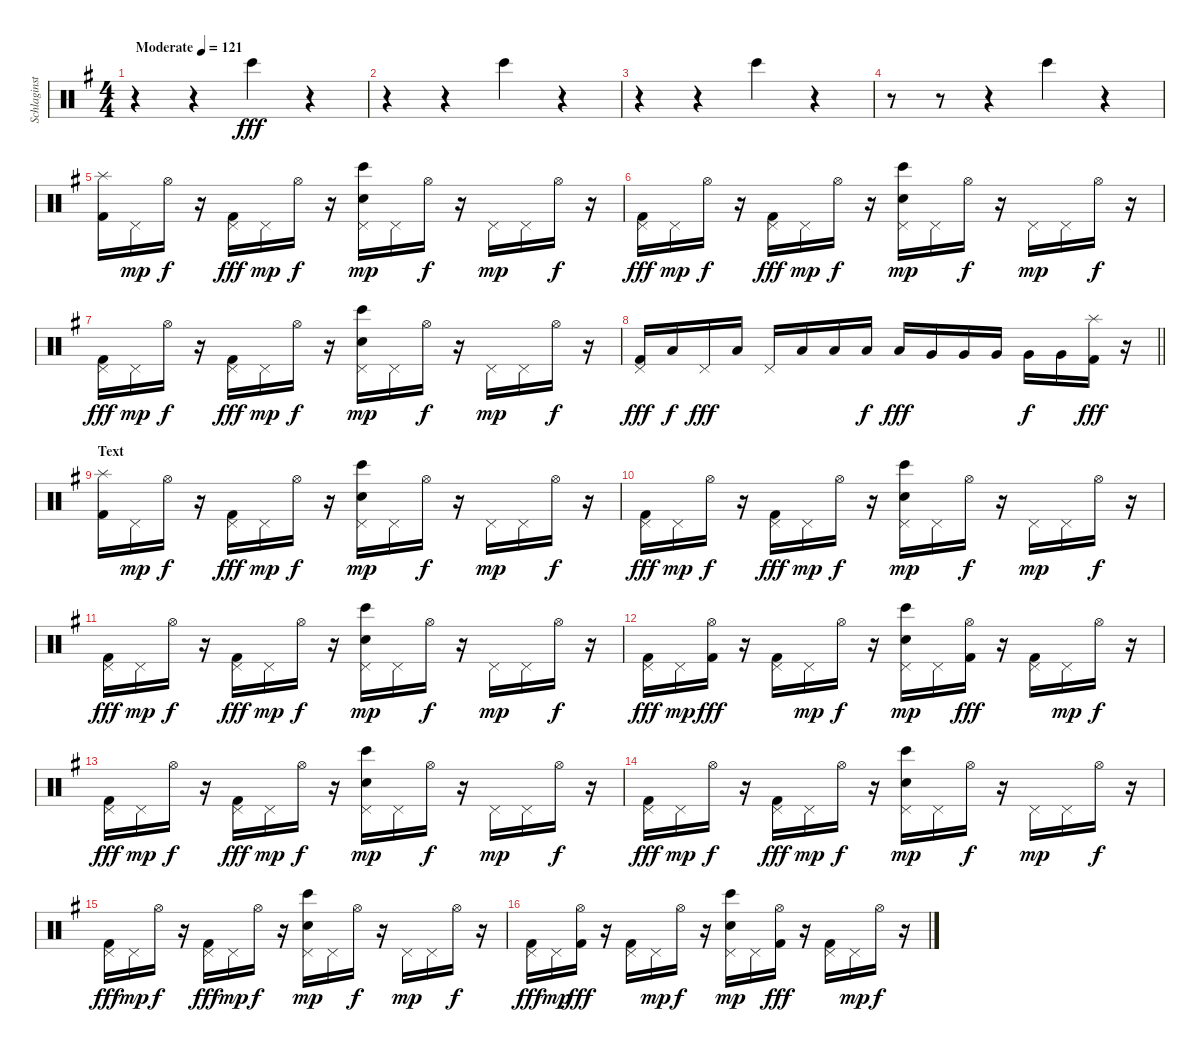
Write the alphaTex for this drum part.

\track ("Schlaginstrumente - Auswahl" "Schlaginst") {instrument percussion}
\staff {score}
\articulation defaults
\ts (4 4)
\tempo (121 "Moderate")
\clef neutral
\ks g
r.4{dy fff} r.4 "Bongo High (hit)".4 r.4 |
r.4 r.4 "Bongo High (hit)".4 r.4 |
r.4 r.4 "Bongo High (hit)".4 r.4 |
r.8 r.8 r.4 "Bongo High (hit)".4 r.4 |
("Splash (hit)" "Kick (hit) 2").16 "Pedal Hi-Hat (hit)".16{dy mp} "Hi-Hat (open)".16{dy f} r.16 ("Pedal Hi-Hat (hit)" "Kick (hit) 2").16{dy fff} "Pedal Hi-Hat (hit)".16{dy mp} "Hi-Hat (open)".16{dy f} r.16 ("Bongo High (hit)" "Pedal Hi-Hat (hit)" "Electric Snare (hit)").16{dy mp} "Pedal Hi-Hat (hit)".16 "Hi-Hat (open)".16{dy f} r.16 "Pedal Hi-Hat (hit)".16{dy mp} "Pedal Hi-Hat (hit)".16 "Hi-Hat (open)".16{dy f} r.16 |
("Pedal Hi-Hat (hit)" "Kick (hit) 2").16{dy fff} "Pedal Hi-Hat (hit)".16{dy mp} "Hi-Hat (open)".16{dy f} r.16 ("Pedal Hi-Hat (hit)" "Kick (hit) 2").16{dy fff} "Pedal Hi-Hat (hit)".16{dy mp} "Hi-Hat (open)".16{dy f} r.16 ("Bongo High (hit)" "Pedal Hi-Hat (hit)" "Electric Snare (hit)").16{dy mp} "Pedal Hi-Hat (hit)".16 "Hi-Hat (open)".16{dy f} r.16 "Pedal Hi-Hat (hit)".16{dy mp} "Pedal Hi-Hat (hit)".16 "Hi-Hat (open)".16{dy f} r.16 |
("Pedal Hi-Hat (hit)" "Kick (hit) 2").16{dy fff} "Pedal Hi-Hat (hit)".16{dy mp} "Hi-Hat (open)".16{dy f} r.16 ("Pedal Hi-Hat (hit)" "Kick (hit) 2").16{dy fff} "Pedal Hi-Hat (hit)".16{dy mp} "Hi-Hat (open)".16{dy f} r.16 ("Bongo High (hit)" "Pedal Hi-Hat (hit)" "Electric Snare (hit)").16{dy mp} "Pedal Hi-Hat (hit)".16 "Hi-Hat (open)".16{dy f} r.16 "Pedal Hi-Hat (hit)".16{dy mp} "Pedal Hi-Hat (hit)".16 "Hi-Hat (open)".16{dy f} r.16 |
\barLineRight lightlight
("Pedal Hi-Hat (hit)" "Kick (hit) 2").16{dy fff} "Low Floor Tom (hit)".16{dy f} "Pedal Hi-Hat (hit)".16{dy fff} "Low Floor Tom (hit)".16 "Pedal Hi-Hat (hit)".16 "Low Tom (hit)".16 "Low Tom (hit)".16 "Low Tom (hit)".16{dy f} "Low Tom (hit)".16{dy fff} "Very Low Tom (hit)".16 "Very Low Tom (hit)".16 "Very Low Tom (hit)".16 "Very Low Tom (hit)".16{dy f} "Very Low Tom (hit)".16 ("Splash (hit)" "Kick (hit) 2").16{dy fff} r.16 |
\section ("" "Text")
("Splash (hit)" "Kick (hit) 2").16 "Pedal Hi-Hat (hit)".16{dy mp} "Hi-Hat (open)".16{dy f} r.16 ("Pedal Hi-Hat (hit)" "Kick (hit) 2").16{dy fff} "Pedal Hi-Hat (hit)".16{dy mp} "Hi-Hat (open)".16{dy f} r.16 ("Bongo High (hit)" "Pedal Hi-Hat (hit)" "Electric Snare (hit)").16{dy mp} "Pedal Hi-Hat (hit)".16 "Hi-Hat (open)".16{dy f} r.16 "Pedal Hi-Hat (hit)".16{dy mp} "Pedal Hi-Hat (hit)".16 "Hi-Hat (open)".16{dy f} r.16 |
("Pedal Hi-Hat (hit)" "Kick (hit) 2").16{dy fff} "Pedal Hi-Hat (hit)".16{dy mp} "Hi-Hat (open)".16{dy f} r.16 ("Pedal Hi-Hat (hit)" "Kick (hit) 2").16{dy fff} "Pedal Hi-Hat (hit)".16{dy mp} "Hi-Hat (open)".16{dy f} r.16 ("Bongo High (hit)" "Pedal Hi-Hat (hit)" "Electric Snare (hit)").16{dy mp} "Pedal Hi-Hat (hit)".16 "Hi-Hat (open)".16{dy f} r.16 "Pedal Hi-Hat (hit)".16{dy mp} "Pedal Hi-Hat (hit)".16 "Hi-Hat (open)".16{dy f} r.16 |
("Pedal Hi-Hat (hit)" "Kick (hit) 2").16{dy fff} "Pedal Hi-Hat (hit)".16{dy mp} "Hi-Hat (open)".16{dy f} r.16 ("Pedal Hi-Hat (hit)" "Kick (hit) 2").16{dy fff} "Pedal Hi-Hat (hit)".16{dy mp} "Hi-Hat (open)".16{dy f} r.16 ("Bongo High (hit)" "Pedal Hi-Hat (hit)" "Electric Snare (hit)").16{dy mp} "Pedal Hi-Hat (hit)".16 "Hi-Hat (open)".16{dy f} r.16 "Pedal Hi-Hat (hit)".16{dy mp} "Pedal Hi-Hat (hit)".16 "Hi-Hat (open)".16{dy f} r.16 |
("Pedal Hi-Hat (hit)" "Kick (hit) 2").16{dy fff} "Pedal Hi-Hat (hit)".16{dy mp} ("Hi-Hat (open)" "Kick (hit) 2").16{dy fff} r.16 ("Pedal Hi-Hat (hit)" "Kick (hit) 2").16 "Pedal Hi-Hat (hit)".16{dy mp} "Hi-Hat (open)".16{dy f} r.16 ("Bongo High (hit)" "Pedal Hi-Hat (hit)" "Electric Snare (hit)").16{dy mp} "Pedal Hi-Hat (hit)".16 ("Hi-Hat (open)" "Kick (hit) 2").16{dy fff} r.16 ("Pedal Hi-Hat (hit)" "Kick (hit) 2").16 "Pedal Hi-Hat (hit)".16{dy mp} "Hi-Hat (open)".16{dy f} r.16 |
("Pedal Hi-Hat (hit)" "Kick (hit) 2").16{dy fff} "Pedal Hi-Hat (hit)".16{dy mp} "Hi-Hat (open)".16{dy f} r.16 ("Pedal Hi-Hat (hit)" "Kick (hit) 2").16{dy fff} "Pedal Hi-Hat (hit)".16{dy mp} "Hi-Hat (open)".16{dy f} r.16 ("Bongo High (hit)" "Pedal Hi-Hat (hit)" "Electric Snare (hit)").16{dy mp} "Pedal Hi-Hat (hit)".16 "Hi-Hat (open)".16{dy f} r.16 "Pedal Hi-Hat (hit)".16{dy mp} "Pedal Hi-Hat (hit)".16 "Hi-Hat (open)".16{dy f} r.16 |
("Pedal Hi-Hat (hit)" "Kick (hit) 2").16{dy fff} "Pedal Hi-Hat (hit)".16{dy mp} "Hi-Hat (open)".16{dy f} r.16 ("Pedal Hi-Hat (hit)" "Kick (hit) 2").16{dy fff} "Pedal Hi-Hat (hit)".16{dy mp} "Hi-Hat (open)".16{dy f} r.16 ("Bongo High (hit)" "Pedal Hi-Hat (hit)" "Electric Snare (hit)").16{dy mp} "Pedal Hi-Hat (hit)".16 "Hi-Hat (open)".16{dy f} r.16 "Pedal Hi-Hat (hit)".16{dy mp} "Pedal Hi-Hat (hit)".16 "Hi-Hat (open)".16{dy f} r.16 |
("Pedal Hi-Hat (hit)" "Kick (hit) 2").16{dy fff} "Pedal Hi-Hat (hit)".16{dy mp} "Hi-Hat (open)".16{dy f} r.16 ("Pedal Hi-Hat (hit)" "Kick (hit) 2").16{dy fff} "Pedal Hi-Hat (hit)".16{dy mp} "Hi-Hat (open)".16{dy f} r.16 ("Bongo High (hit)" "Pedal Hi-Hat (hit)" "Electric Snare (hit)").16{dy mp} "Pedal Hi-Hat (hit)".16 "Hi-Hat (open)".16{dy f} r.16 "Pedal Hi-Hat (hit)".16{dy mp} "Pedal Hi-Hat (hit)".16 "Hi-Hat (open)".16{dy f} r.16 |
("Pedal Hi-Hat (hit)" "Kick (hit) 2").16{dy fff} "Pedal Hi-Hat (hit)".16{dy mp} ("Hi-Hat (open)" "Kick (hit) 2").16{dy fff} r.16 ("Pedal Hi-Hat (hit)" "Kick (hit) 2").16 "Pedal Hi-Hat (hit)".16{dy mp} "Hi-Hat (open)".16{dy f} r.16 ("Bongo High (hit)" "Pedal Hi-Hat (hit)" "Electric Snare (hit)").16{dy mp} "Pedal Hi-Hat (hit)".16 ("Hi-Hat (open)" "Kick (hit) 2").16{dy fff} r.16 ("Pedal Hi-Hat (hit)" "Kick (hit) 2").16 "Pedal Hi-Hat (hit)".16{dy mp} "Hi-Hat (open)".16{dy f} r.16
